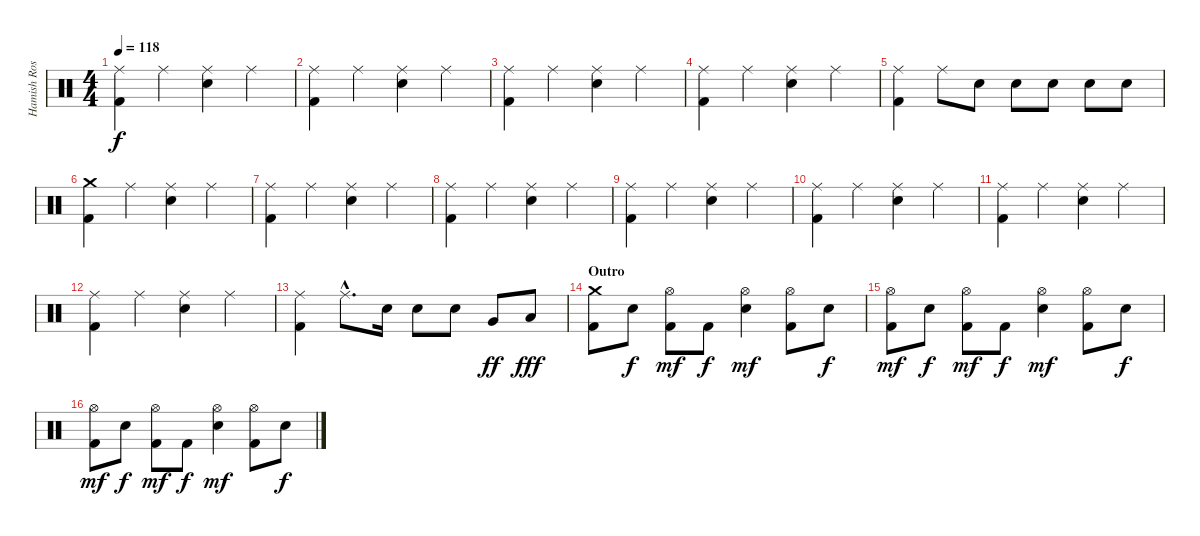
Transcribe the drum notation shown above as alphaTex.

\track ("Hamish Rosser" "Hamish Ros") {instrument percussion}
\staff {score}
\articulation defaults
\ts (4 4)
\tempo 118
\clef neutral
\ks c
("Ride (middle)" "Kick (hit) 2").4{dy f} "Ride (middle)".4 ("Ride (middle)" "Electric Snare (hit)").4 "Ride (middle)".4 |
("Ride (middle)" "Kick (hit) 2").4 "Ride (middle)".4 ("Ride (middle)" "Electric Snare (hit)").4 "Ride (middle)".4 |
("Ride (middle)" "Kick (hit) 2").4 "Ride (middle)".4 ("Ride (middle)" "Electric Snare (hit)").4 "Ride (middle)".4 |
("Ride (middle)" "Kick (hit) 2").4 "Ride (middle)".4 ("Ride (middle)" "Electric Snare (hit)").4 "Ride (middle)".4 |
("Ride (middle)" "Kick (hit) 2").4 "Ride (middle)".8 "Electric Snare (hit)".8 "Electric Snare (hit)".8 "Electric Snare (hit)".8 "Electric Snare (hit)".8 "Electric Snare (hit)".8 |
("Crash medium (hit)" "Kick (hit) 2").4 "Ride (middle)".4 ("Ride (middle)" "Electric Snare (hit)").4 "Ride (middle)".4 |
("Ride (middle)" "Kick (hit) 2").4 "Ride (middle)".4 ("Ride (middle)" "Electric Snare (hit)").4 "Ride (middle)".4 |
("Ride (middle)" "Kick (hit) 2").4 "Ride (middle)".4 ("Ride (middle)" "Electric Snare (hit)").4 "Ride (middle)".4 |
("Ride (middle)" "Kick (hit) 2").4 "Ride (middle)".4 ("Ride (middle)" "Electric Snare (hit)").4 "Ride (middle)".4 |
("Ride (middle)" "Kick (hit) 2").4 "Ride (middle)".4 ("Ride (middle)" "Electric Snare (hit)").4 "Ride (middle)".4 |
("Ride (middle)" "Kick (hit) 2").4 "Ride (middle)".4 ("Ride (middle)" "Electric Snare (hit)").4 "Ride (middle)".4 |
("Ride (middle)" "Kick (hit) 2").4 "Ride (middle)".4 ("Ride (middle)" "Electric Snare (hit)").4 "Ride (middle)".4 |
("Ride (middle)" "Kick (hit) 2").4 "Ride (middle)"{hac}.8{d} "Electric Snare (hit)".16 "Electric Snare (hit)".8 "Electric Snare (hit)".8 "Very Low Tom (hit)".8{dy ff} "Low Tom (hit)".8{dy fff} |
\section ("" "Outro")
("Crash medium (hit)" "Kick (hit) 2").8 "Electric Snare (hit)".8{dy f} ("Hi-Hat (open)" "Kick (hit) 2").8{dy mf} "Kick (hit) 2".8{dy f} ("Hi-Hat (open)" "Electric Snare (hit)").4{dy mf} ("Hi-Hat (open)" "Kick (hit) 2").8 "Electric Snare (hit)".8{dy f} |
("Hi-Hat (open)" "Kick (hit) 2").8{dy mf} "Electric Snare (hit)".8{dy f} ("Hi-Hat (open)" "Kick (hit) 2").8{dy mf} "Kick (hit) 2".8{dy f} ("Hi-Hat (open)" "Electric Snare (hit)").4{dy mf} ("Hi-Hat (open)" "Kick (hit) 2").8 "Electric Snare (hit)".8{dy f} |
("Hi-Hat (open)" "Kick (hit) 2").8{dy mf} "Electric Snare (hit)".8{dy f} ("Hi-Hat (open)" "Kick (hit) 2").8{dy mf} "Kick (hit) 2".8{dy f} ("Hi-Hat (open)" "Electric Snare (hit)").4{dy mf} ("Hi-Hat (open)" "Kick (hit) 2").8 "Electric Snare (hit)".8{dy f}
